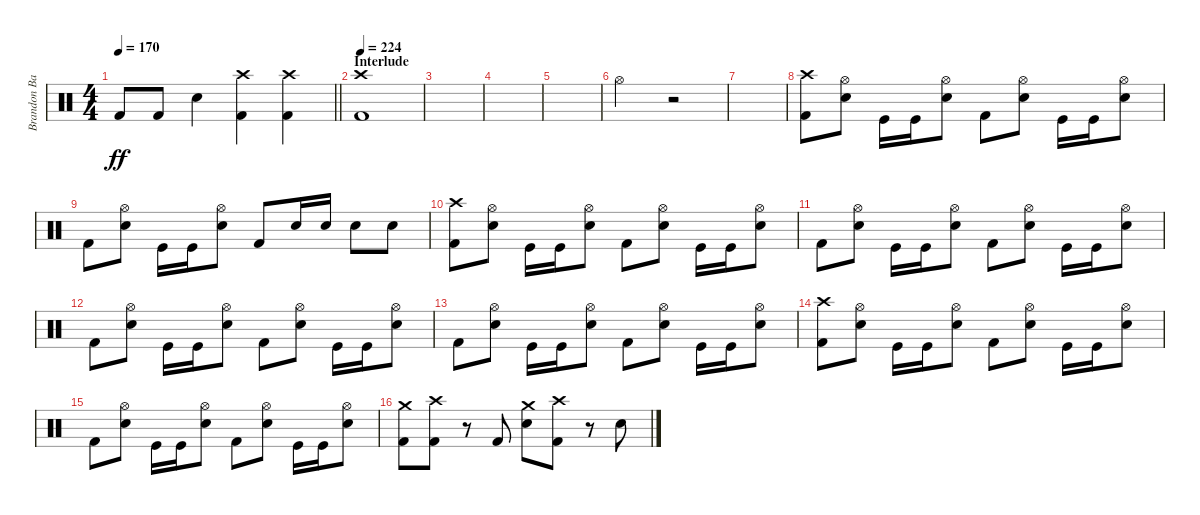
\track ("Brandon Barnes" "Brandon Ba") {instrument percussion}
\staff {score}
\articulation defaults
\ts (4 4)
\tempo 170
\clef neutral
\barLineRight lightlight
\ks c "Kick (hit) 2".8{dy ff} "Kick (hit) 2".8 "Snare (hit) 2".4
("Kick (hit) 2" "Crash high (hit)").4 ("Kick (hit) 2" "Crash high (hit)").4 |
\section ("" "Interlude")
\tempo 224
("Kick (hit) 2" "Crash high (hit)").1 |
|
|
|
"Hi-Hat (open)".2 r.2 |
|
("Kick (hit) 2" "Crash high (hit)").8 ("Snare (hit) 2" "Hi-Hat (open)").8 "Kick (hit)".16 "Kick (hit)".16 ("Snare (hit) 2" "Hi-Hat (open)").8 "Kick (hit) 2".8 ("Snare (hit) 2" "Hi-Hat (open)").8 "Kick (hit)".16 "Kick (hit)".16 ("Snare (hit) 2" "Hi-Hat (open)").8 |
"Kick (hit) 2".8 ("Snare (hit) 2" "Hi-Hat (open)").8 "Kick (hit)".16 "Kick (hit)".16 ("Snare (hit) 2" "Hi-Hat (open)").8 "Kick (hit) 2".8 "Snare (hit) 2".16 "Snare (hit) 2".16 "Snare (hit) 2".8 "Snare (hit) 2".8 |
("Kick (hit) 2" "Crash high (hit)").8 ("Snare (hit) 2" "Hi-Hat (open)").8 "Kick (hit)".16 "Kick (hit)".16 ("Snare (hit) 2" "Hi-Hat (open)").8 "Kick (hit) 2".8 ("Snare (hit) 2" "Hi-Hat (open)").8 "Kick (hit)".16 "Kick (hit)".16 ("Snare (hit) 2" "Hi-Hat (open)").8 |
"Kick (hit) 2".8 ("Snare (hit) 2" "Hi-Hat (open)").8 "Kick (hit)".16 "Kick (hit)".16 ("Snare (hit) 2" "Hi-Hat (open)").8 "Kick (hit) 2".8 ("Snare (hit) 2" "Hi-Hat (open)").8 "Kick (hit)".16 "Kick (hit)".16 ("Snare (hit) 2" "Hi-Hat (open)").8 |
"Kick (hit) 2".8 ("Snare (hit) 2" "Hi-Hat (open)").8 "Kick (hit)".16 "Kick (hit)".16 ("Snare (hit) 2" "Hi-Hat (open)").8 "Kick (hit) 2".8 ("Snare (hit) 2" "Hi-Hat (open)").8 "Kick (hit)".16 "Kick (hit)".16 ("Snare (hit) 2" "Hi-Hat (open)").8 |
"Kick (hit) 2".8 ("Snare (hit) 2" "Hi-Hat (open)").8 "Kick (hit)".16 "Kick (hit)".16 ("Snare (hit) 2" "Hi-Hat (open)").8 "Kick (hit) 2".8 ("Snare (hit) 2" "Hi-Hat (open)").8 "Kick (hit)".16 "Kick (hit)".16 ("Snare (hit) 2" "Hi-Hat (open)").8 |
("Kick (hit) 2" "Crash high (hit)").8 ("Snare (hit) 2" "Hi-Hat (open)").8 "Kick (hit)".16 "Kick (hit)".16 ("Snare (hit) 2" "Hi-Hat (open)").8 "Kick (hit) 2".8 ("Snare (hit) 2" "Hi-Hat (open)").8 "Kick (hit)".16 "Kick (hit)".16 ("Snare (hit) 2" "Hi-Hat (open)").8 |
"Kick (hit) 2".8 ("Snare (hit) 2" "Hi-Hat (open)").8 "Kick (hit)".16 "Kick (hit)".16 ("Snare (hit) 2" "Hi-Hat (open)").8 "Kick (hit) 2".8 ("Snare (hit) 2" "Hi-Hat (open)").8 "Kick (hit)".16 "Kick (hit)".16 ("Snare (hit) 2" "Hi-Hat (open)").8 |
("Crash medium (hit)" "Kick (hit) 2").8 ("Crash high (hit)" "Kick (hit) 2").8 r.8 "Kick (hit) 2".8 ("Crash medium (hit)" "Snare (hit) 2").8 ("Kick (hit) 2" "Crash high (hit)").8 r.8 "Snare (hit) 2".8
